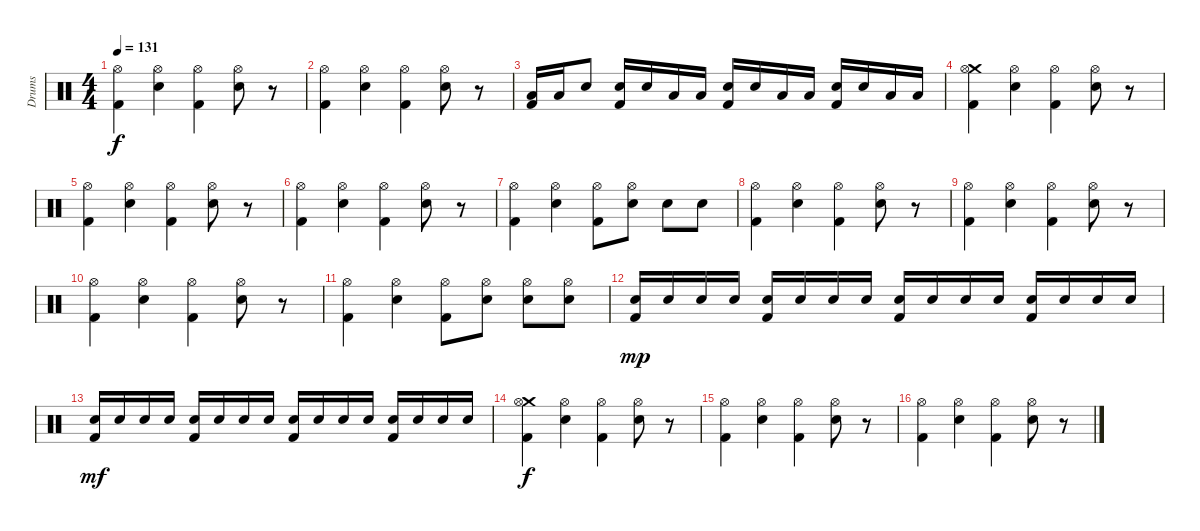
\track ("Drums" "Drums") {instrument percussion}
\staff {score}
\articulation defaults
\ts (4 4)
\tempo 131
\clef neutral
\ks c
("Hi-Hat (open)" "Kick (hit) 2").4{dy f} ("Hi-Hat (open)" "Electric Snare (hit)").4 ("Hi-Hat (open)" "Kick (hit) 2").4 ("Hi-Hat (open)" "Electric Snare (hit)").8 r.8 |
("Hi-Hat (open)" "Kick (hit) 2").4 ("Hi-Hat (open)" "Electric Snare (hit)").4 ("Hi-Hat (open)" "Kick (hit) 2").4 ("Hi-Hat (open)" "Electric Snare (hit)").8 r.8 |
("Low Tom (hit)" "Kick (hit) 2").16 "Low Tom (hit)".16 "Electric Snare (hit)".8 ("Electric Snare (hit)" "Kick (hit) 2").16 "Electric Snare (hit)".16 "Low Tom (hit)".16 "Low Tom (hit)".16 ("Electric Snare (hit)" "Kick (hit) 2").16 "Electric Snare (hit)".16 "Low Tom (hit)".16 "Low Tom (hit)".16 ("Electric Snare (hit)" "Kick (hit) 2").16 "Electric Snare (hit)".16 "Low Tom (hit)".16 "Low Tom (hit)".16 |
("Crash medium (hit)" "Hi-Hat (open)" "Kick (hit) 2").4 ("Hi-Hat (open)" "Electric Snare (hit)").4 ("Hi-Hat (open)" "Kick (hit) 2").4 ("Hi-Hat (open)" "Electric Snare (hit)").8 r.8 |
("Hi-Hat (open)" "Kick (hit) 2").4 ("Hi-Hat (open)" "Electric Snare (hit)").4 ("Hi-Hat (open)" "Kick (hit) 2").4 ("Hi-Hat (open)" "Electric Snare (hit)").8 r.8 |
("Hi-Hat (open)" "Kick (hit) 2").4 ("Hi-Hat (open)" "Electric Snare (hit)").4 ("Hi-Hat (open)" "Kick (hit) 2").4 ("Hi-Hat (open)" "Electric Snare (hit)").8 r.8 |
("Hi-Hat (open)" "Kick (hit) 2").4 ("Hi-Hat (open)" "Electric Snare (hit)").4 ("Hi-Hat (open)" "Kick (hit) 2").8 ("Hi-Hat (open)" "Electric Snare (hit)").8 "Electric Snare (hit)".8 "Electric Snare (hit)".8 |
("Hi-Hat (open)" "Kick (hit) 2").4 ("Hi-Hat (open)" "Electric Snare (hit)").4 ("Hi-Hat (open)" "Kick (hit) 2").4 ("Hi-Hat (open)" "Electric Snare (hit)").8 r.8 |
("Hi-Hat (open)" "Kick (hit) 2").4 ("Hi-Hat (open)" "Electric Snare (hit)").4 ("Hi-Hat (open)" "Kick (hit) 2").4 ("Hi-Hat (open)" "Electric Snare (hit)").8 r.8 |
("Hi-Hat (open)" "Kick (hit) 2").4 ("Hi-Hat (open)" "Electric Snare (hit)").4 ("Hi-Hat (open)" "Kick (hit) 2").4 ("Hi-Hat (open)" "Electric Snare (hit)").8 r.8 |
("Hi-Hat (open)" "Kick (hit) 2").4 ("Hi-Hat (open)" "Electric Snare (hit)").4 ("Hi-Hat (open)" "Kick (hit) 2").8 ("Hi-Hat (open)" "Electric Snare (hit)").8 ("Hi-Hat (open)" "Electric Snare (hit)").8 ("Hi-Hat (open)" "Electric Snare (hit)").8 |
("Electric Snare (hit)" "Kick (hit) 2").16{dy mp} "Electric Snare (hit)".16 "Electric Snare (hit)".16 "Electric Snare (hit)".16 ("Electric Snare (hit)" "Kick (hit) 2").16 "Electric Snare (hit)".16 "Electric Snare (hit)".16 "Electric Snare (hit)".16 ("Electric Snare (hit)" "Kick (hit) 2").16 "Electric Snare (hit)".16 "Electric Snare (hit)".16 "Electric Snare (hit)".16 ("Electric Snare (hit)" "Kick (hit) 2").16 "Electric Snare (hit)".16 "Electric Snare (hit)".16 "Electric Snare (hit)".16 |
("Electric Snare (hit)" "Kick (hit) 2").16{dy mf} "Electric Snare (hit)".16 "Electric Snare (hit)".16 "Electric Snare (hit)".16 ("Electric Snare (hit)" "Kick (hit) 2").16 "Electric Snare (hit)".16 "Electric Snare (hit)".16 "Electric Snare (hit)".16 ("Electric Snare (hit)" "Kick (hit) 2").16 "Electric Snare (hit)".16 "Electric Snare (hit)".16 "Electric Snare (hit)".16 ("Electric Snare (hit)" "Kick (hit) 2").16 "Electric Snare (hit)".16 "Electric Snare (hit)".16 "Electric Snare (hit)".16 |
("Crash medium (hit)" "Hi-Hat (open)" "Kick (hit) 2").4{dy f} ("Hi-Hat (open)" "Electric Snare (hit)").4 ("Hi-Hat (open)" "Kick (hit) 2").4 ("Hi-Hat (open)" "Electric Snare (hit)").8 r.8 |
("Hi-Hat (open)" "Kick (hit) 2").4 ("Hi-Hat (open)" "Electric Snare (hit)").4 ("Hi-Hat (open)" "Kick (hit) 2").4 ("Hi-Hat (open)" "Electric Snare (hit)").8 r.8 |
("Hi-Hat (open)" "Kick (hit) 2").4 ("Hi-Hat (open)" "Electric Snare (hit)").4 ("Hi-Hat (open)" "Kick (hit) 2").4 ("Hi-Hat (open)" "Electric Snare (hit)").8 r.8
